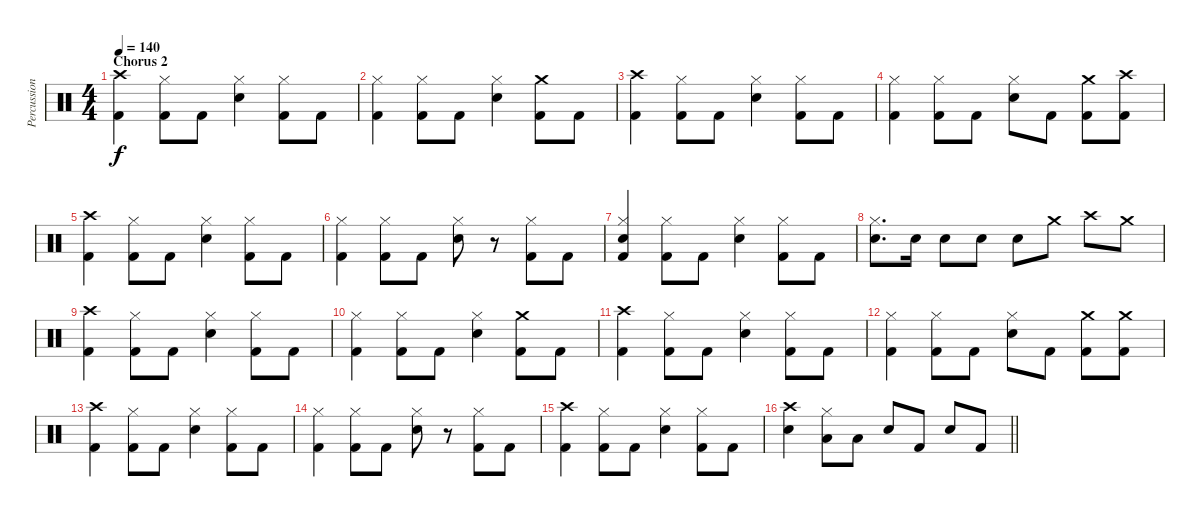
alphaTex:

\track ("Percussion (LP III)" "Percussion") {instrument percussion}
\staff {score}
\articulation defaults
\ts (4 4)
\section ("" "Chorus 2")
\tempo 140
\clef neutral
\ks c
("Crash high (hit)" "Kick (hit) 2").4{dy f} ("Hi-Hat (closed)" "Kick (hit) 2").8 "Kick (hit) 2".8 ("Hi-Hat (closed)" "Snare (hit) 2").4 ("Hi-Hat (closed)" "Kick (hit) 2").8 "Kick (hit) 2".8 |
("Hi-Hat (closed)" "Kick (hit) 2").4 ("Hi-Hat (closed)" "Kick (hit) 2").8 "Kick (hit) 2".8 ("Hi-Hat (closed)" "Snare (hit) 2").4 ("Crash medium (hit)" "Kick (hit) 2").8 "Kick (hit) 2".8 |
("Crash high (hit)" "Kick (hit) 2").4 ("Hi-Hat (closed)" "Kick (hit) 2").8 "Kick (hit) 2".8 ("Hi-Hat (closed)" "Snare (hit) 2").4 ("Hi-Hat (closed)" "Kick (hit) 2").8 "Kick (hit) 2".8 |
("Hi-Hat (closed)" "Kick (hit) 2").4 ("Hi-Hat (closed)" "Kick (hit) 2").8 "Kick (hit) 2".8 ("Hi-Hat (closed)" "Snare (hit) 2").8 "Kick (hit) 2".8 ("Crash medium (hit)" "Kick (hit) 2").8 ("Crash high (hit)" "Kick (hit) 2").8 |
("Crash high (hit)" "Kick (hit) 2").4 ("Hi-Hat (closed)" "Kick (hit) 2").8 "Kick (hit) 2".8 ("Hi-Hat (closed)" "Snare (hit) 2").4 ("Hi-Hat (closed)" "Kick (hit) 2").8 "Kick (hit) 2".8 |
("Hi-Hat (closed)" "Kick (hit) 2").4 ("Hi-Hat (closed)" "Kick (hit) 2").8 "Kick (hit) 2".8 ("Hi-Hat (closed)" "Snare (hit) 2").8 r.8 ("Hi-Hat (closed)" "Kick (hit) 2").8 "Kick (hit) 2".8 |
("Hi-Hat (closed)" "Snare (hit) 2" "Kick (hit) 2").4 ("Hi-Hat (closed)" "Kick (hit) 2").8 "Kick (hit) 2".8 ("Hi-Hat (closed)" "Snare (hit) 2").4 ("Hi-Hat (closed)" "Kick (hit) 2").8 "Kick (hit) 2".8 |
("Hi-Hat (closed)" "Snare (hit) 2").8{d} "Snare (hit) 2".16 "Snare (hit) 2".8 "Snare (hit) 2".8 "Snare (hit) 2".8 "Crash medium (hit)".8 "Crash high (hit)".8 "Crash medium (hit)".8 |
("Crash high (hit)" "Kick (hit) 2").4 ("Hi-Hat (closed)" "Kick (hit) 2").8 "Kick (hit) 2".8 ("Hi-Hat (closed)" "Snare (hit) 2").4 ("Hi-Hat (closed)" "Kick (hit) 2").8 "Kick (hit) 2".8 |
("Hi-Hat (closed)" "Kick (hit) 2").4 ("Hi-Hat (closed)" "Kick (hit) 2").8 "Kick (hit) 2".8 ("Hi-Hat (closed)" "Snare (hit) 2").4 ("Crash medium (hit)" "Kick (hit) 2").8 "Kick (hit) 2".8 |
("Crash high (hit)" "Kick (hit) 2").4 ("Hi-Hat (closed)" "Kick (hit) 2").8 "Kick (hit) 2".8 ("Hi-Hat (closed)" "Snare (hit) 2").4 ("Hi-Hat (closed)" "Kick (hit) 2").8 "Kick (hit) 2".8 |
("Hi-Hat (closed)" "Kick (hit) 2").4 ("Hi-Hat (closed)" "Kick (hit) 2").8 "Kick (hit) 2".8 ("Hi-Hat (closed)" "Snare (hit) 2").8 "Kick (hit) 2".8 ("Crash medium (hit)" "Kick (hit) 2").8 ("Crash medium (hit)" "Kick (hit) 2").8 |
("Crash high (hit)" "Kick (hit) 2").4 ("Hi-Hat (closed)" "Kick (hit) 2").8 "Kick (hit) 2".8 ("Hi-Hat (closed)" "Snare (hit) 2").4 ("Hi-Hat (closed)" "Kick (hit) 2").8 "Kick (hit) 2".8 |
("Hi-Hat (closed)" "Kick (hit) 2").4 ("Hi-Hat (closed)" "Kick (hit) 2").8 "Kick (hit) 2".8 ("Hi-Hat (closed)" "Snare (hit) 2").8 r.8 ("Hi-Hat (closed)" "Kick (hit) 2").8 "Kick (hit) 2".8 |
("Crash high (hit)" "Kick (hit) 2").4 ("Hi-Hat (closed)" "Kick (hit) 2").8 "Kick (hit) 2".8 ("Hi-Hat (closed)" "Snare (hit) 2").4 ("Hi-Hat (closed)" "Kick (hit) 2").8 "Kick (hit) 2".8 |
\barLineRight lightlight
("Crash high (hit)" "Snare (hit) 2").4 ("Hi-Hat (closed)" "Low Tom (hit)").8 "Low Tom (hit)".8 "Snare (hit) 2".8 "Kick (hit) 2".8 "Snare (hit) 2".8 "Kick (hit) 2".8
